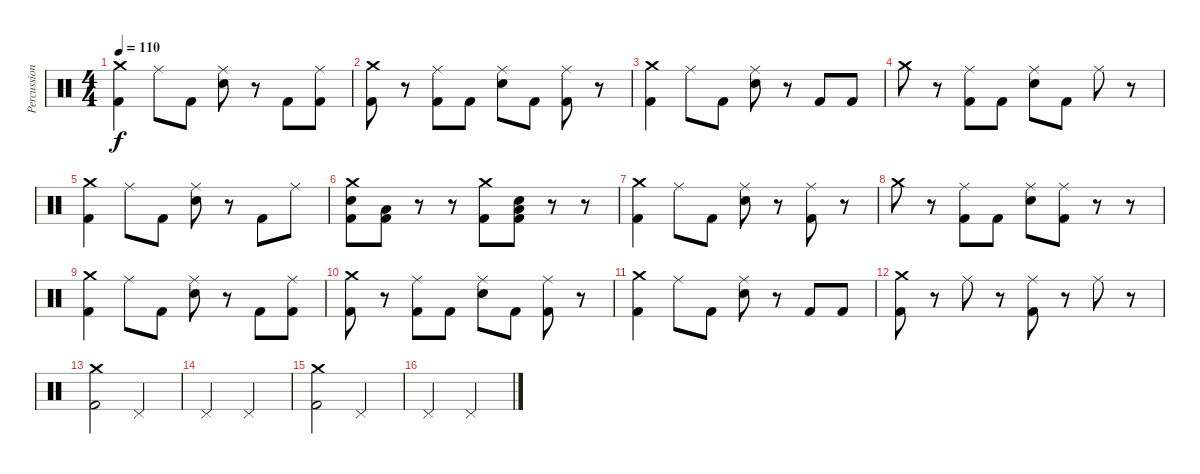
\track ("Percussion" "Percussion") {instrument percussion}
\staff {score}
\articulation defaults
\ts (4 4)
\tempo 110
\clef neutral
\ks c
("Crash medium (hit)" "Kick (hit) 2").4{dy f} "Ride (middle)".8 "Kick (hit) 2".8 ("Ride (middle)" "Electric Snare (hit)").8 r.8 "Kick (hit) 2".8 ("Ride (middle)" "Kick (hit) 2").8 |
("Crash medium (hit)" "Kick (hit) 2").8 r.8 ("Ride (middle)" "Kick (hit) 2").8 "Kick (hit) 2".8 ("Ride (middle)" "Electric Snare (hit)").8 "Kick (hit) 2".8 ("Ride (middle)" "Kick (hit) 2").8 r.8 |
("Crash medium (hit)" "Kick (hit) 2").4 "Ride (middle)".8 "Kick (hit) 2".8 ("Ride (middle)" "Electric Snare (hit)").8 r.8 "Kick (hit) 2".8 "Kick (hit) 2".8 |
"Crash medium (hit)".8 r.8 ("Ride (middle)" "Kick (hit) 2").8 "Kick (hit) 2".8 ("Ride (middle)" "Electric Snare (hit)").8 "Kick (hit) 2".8 "Ride (middle)".8 r.8 |
("Crash medium (hit)" "Kick (hit) 2").4 "Ride (middle)".8 "Kick (hit) 2".8 ("Ride (middle)" "Electric Snare (hit)").8 r.8 "Kick (hit) 2".8 "Ride (middle)".8 |
("Crash medium (hit)" "Electric Snare (hit)" "Kick (hit) 2").8{bd 60} ("Low Tom (hit)" "Kick (hit) 2").8{bd 60} r.8 r.8 ("Crash medium (hit)" "Kick (hit) 2").8{bd 60} ("Low Floor Tom (hit)" "Electric Snare (hit)" "Kick (hit) 2").8{bd 60} r.8 r.8 |
("Crash medium (hit)" "Kick (hit) 2").4 "Ride (middle)".8 "Kick (hit) 2".8 ("Ride (middle)" "Electric Snare (hit)").8 r.8 ("Ride (middle)" "Kick (hit) 2").8 r.8 |
"Crash medium (hit)".8 r.8 ("Ride (middle)" "Kick (hit) 2").8 "Kick (hit) 2".8 ("Ride (middle)" "Electric Snare (hit)").8 ("Ride (middle)" "Kick (hit) 2").8 r.8 r.8 |
("Crash medium (hit)" "Kick (hit) 2").4 "Ride (middle)".8 "Kick (hit) 2".8 ("Ride (middle)" "Electric Snare (hit)").8 r.8 "Kick (hit) 2".8 ("Ride (middle)" "Kick (hit) 2").8 |
("Crash medium (hit)" "Kick (hit) 2").8 r.8 ("Ride (middle)" "Kick (hit) 2").8 "Kick (hit) 2".8 ("Ride (middle)" "Electric Snare (hit)").8 "Kick (hit) 2".8 ("Ride (middle)" "Kick (hit) 2").8 r.8 |
("Crash medium (hit)" "Kick (hit) 2").4 "Ride (middle)".8 "Kick (hit) 2".8 ("Ride (middle)" "Electric Snare (hit)").8 r.8 "Kick (hit) 2".8 "Kick (hit) 2".8 |
("Crash medium (hit)" "Kick (hit) 2").8 r.8 "Ride (middle)".8 r.8 ("Ride (middle)" "Kick (hit) 2").8 r.8 "Ride (middle)".8 r.8 |
("Kick (hit) 2" "Crash medium (hit)").2 "Pedal Hi-Hat (hit)".2 |
"Pedal Hi-Hat (hit)".2 "Pedal Hi-Hat (hit)".2 |
("Kick (hit) 2" "Crash medium (hit)").2 "Pedal Hi-Hat (hit)".2 |
"Pedal Hi-Hat (hit)".2 "Pedal Hi-Hat (hit)".2
